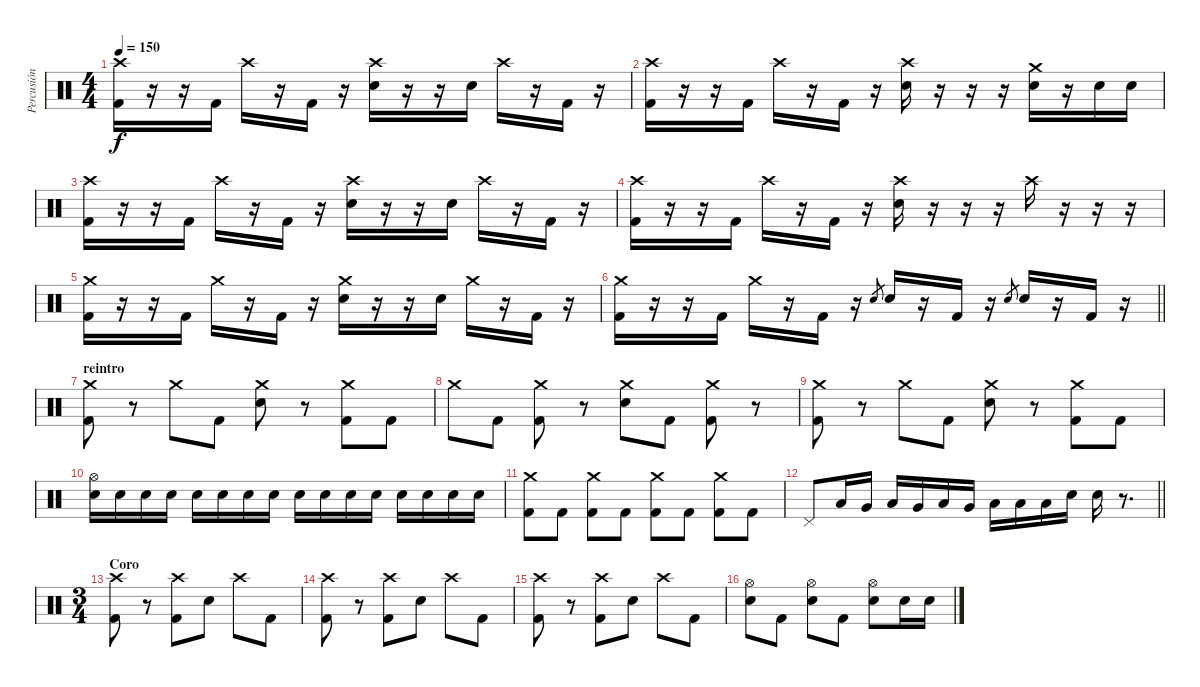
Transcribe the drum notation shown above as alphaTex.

\track ("Percusión" "Percusión") {instrument percussion}
\staff {score}
\articulation defaults
\ts (4 4)
\tempo 150
\clef neutral
\ks c
("Crash high (hit)" "Kick (hit) 2").16{dy f} r.16 r.16 "Kick (hit) 2".16 "Crash high (hit)".16 r.16 "Kick (hit) 2".16 r.16 ("Crash high (hit)" "Electric Snare (hit)").16 r.16 r.16 "Electric Snare (hit)".16 "Crash high (hit)".16 r.16 "Kick (hit) 2".16 r.16 |
("Crash high (hit)" "Kick (hit) 2").16 r.16 r.16 "Kick (hit) 2".16 "Crash high (hit)".16 r.16 "Kick (hit) 2".16 r.16 ("Crash high (hit)" "Electric Snare (hit)").16 r.16 r.16 r.16 ("Crash medium (hit)" "Electric Snare (hit)").16 r.16 "Electric Snare (hit)".16 "Electric Snare (hit)".16 |
("Crash high (hit)" "Kick (hit) 2").16 r.16 r.16 "Kick (hit) 2".16 "Crash high (hit)".16 r.16 "Kick (hit) 2".16 r.16 ("Crash high (hit)" "Electric Snare (hit)").16 r.16 r.16 "Electric Snare (hit)".16 "Crash high (hit)".16 r.16 "Kick (hit) 2".16 r.16 |
("Crash high (hit)" "Kick (hit) 2").16 r.16 r.16 "Kick (hit) 2".16 "Crash high (hit)".16 r.16 "Kick (hit) 2".16 r.16 ("Crash high (hit)" "Electric Snare (hit)").16 r.16 r.16 r.16 "Crash high (hit)".16 r.16 r.16 r.16 |
("Crash medium (hit)" "Kick (hit) 2").16 r.16 r.16 "Kick (hit) 2".16 "Crash medium (hit)".16 r.16 "Kick (hit) 2".16 r.16 ("Crash medium (hit)" "Electric Snare (hit)").16 r.16 r.16 "Electric Snare (hit)".16 "Crash medium (hit)".16 r.16 "Kick (hit) 2".16 r.16 |
\barLineRight lightlight
("Crash medium (hit)" "Kick (hit) 2").16 r.16 r.16 "Kick (hit) 2".16 "Crash medium (hit)".16 r.16 "Kick (hit) 2".16 r.16 "Electric Snare (hit)".8{gr} "Electric Snare (hit)".16 r.16 "Kick (hit) 2".16 r.16 "Electric Snare (hit)".8{gr} "Electric Snare (hit)".16 r.16 "Kick (hit) 2".16 r.16 |
\section ("" "reintro")
("Crash medium (hit)" "Kick (hit) 2").8 r.8 "Crash medium (hit)".8 "Kick (hit) 2".8 ("Crash medium (hit)" "Electric Snare (hit)").8 r.8 ("Crash medium (hit)" "Kick (hit) 2").8 "Kick (hit) 2".8 |
"Crash medium (hit)".8 "Kick (hit) 2".8 ("Crash medium (hit)" "Kick (hit) 2").8 r.8 ("Crash medium (hit)" "Electric Snare (hit)").8 "Kick (hit) 2".8 ("Crash medium (hit)" "Kick (hit) 2").8 r.8 |
("Crash medium (hit)" "Kick (hit) 2").8 r.8 "Crash medium (hit)".8 "Kick (hit) 2".8 ("Crash medium (hit)" "Electric Snare (hit)").8 r.8 ("Crash medium (hit)" "Kick (hit) 2").8 "Kick (hit) 2".8 |
("Hi-Hat (open)" "Electric Snare (hit)").16 "Electric Snare (hit)".16 "Electric Snare (hit)".16 "Electric Snare (hit)".16 "Electric Snare (hit)".16 "Electric Snare (hit)".16 "Electric Snare (hit)".16 "Electric Snare (hit)".16 "Electric Snare (hit)".16 "Electric Snare (hit)".16 "Electric Snare (hit)".16 "Electric Snare (hit)".16 "Electric Snare (hit)".16 "Electric Snare (hit)".16 "Electric Snare (hit)".16 "Electric Snare (hit)".16 |
("Crash medium (hit)" "Kick (hit) 2").8 "Kick (hit) 2".8 ("Crash medium (hit)" "Kick (hit) 2").8 "Kick (hit) 2".8 ("Crash medium (hit)" "Kick (hit) 2").8 "Kick (hit) 2".8 ("Crash medium (hit)" "Kick (hit) 2").8 "Kick (hit) 2".8 |
\barLineRight lightlight "Pedal Hi-Hat (hit)".8 "Low Tom (hit)".16 "Very Low Tom (hit)".16 "Low Tom (hit)".16 "Very Low Tom (hit)".16 "Low Floor Tom (hit)".16 "Very Low Tom (hit)".16 "Low Floor Tom (hit)".16 "Low Floor Tom (hit)".16 "Low Floor Tom (hit)".16 "Electric Snare (hit)".16 "Electric Snare (hit)".16
r.8{d} |
\ts (3 4)
\section ("" "Coro")
("Crash high (hit)" "Kick (hit) 2").8 r.8 ("Crash high (hit)" "Kick (hit) 2").8 "Electric Snare (hit)".8 "Crash high (hit)".8 "Kick (hit) 2".8 |
("Crash high (hit)" "Kick (hit) 2").8 r.8 ("Crash high (hit)" "Kick (hit) 2").8 "Electric Snare (hit)".8 "Crash high (hit)".8 "Kick (hit) 2".8 |
("Crash high (hit)" "Kick (hit) 2").8 r.8 ("Crash high (hit)" "Kick (hit) 2").8 "Electric Snare (hit)".8 "Crash high (hit)".8 "Kick (hit) 2".8 |
("Hi-Hat (open)" "Electric Snare (hit)").8 "Kick (hit) 2".8 ("Hi-Hat (open)" "Electric Snare (hit)").8 "Kick (hit) 2".8 ("Hi-Hat (open)" "Electric Snare (hit)").8 "Electric Snare (hit)".16 "Electric Snare (hit)".16
